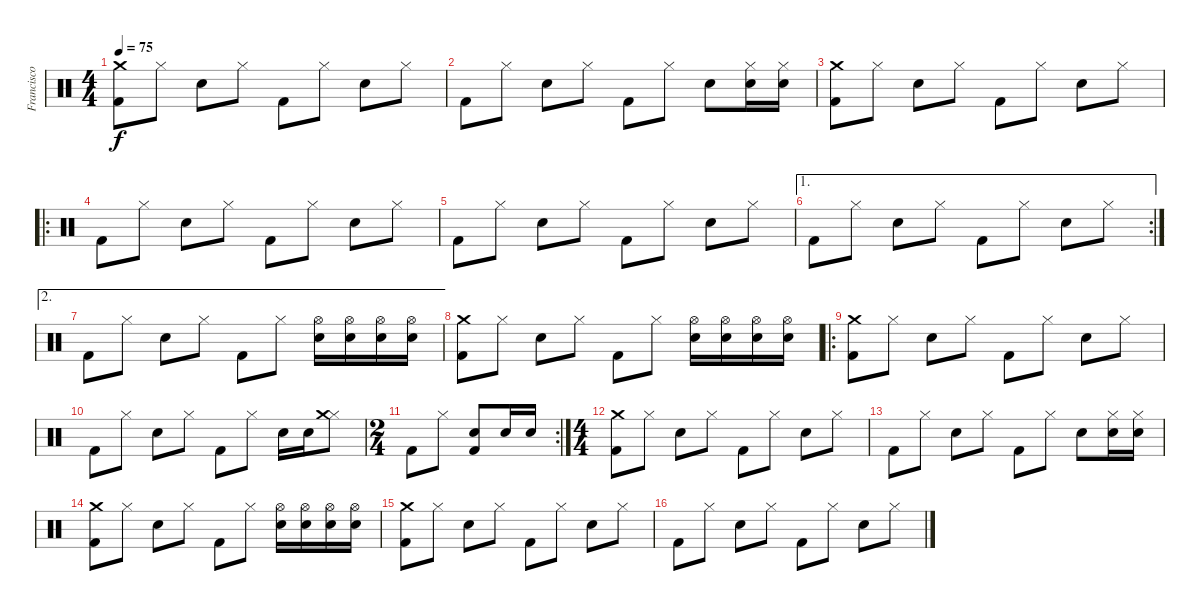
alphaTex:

\track ("Francisco (batería)" "Francisco ") {instrument percussion}
\staff {score}
\articulation defaults
\ts (4 4)
\tempo 75
\clef neutral
\ks c
("Crash medium (hit)" "Kick (hit) 2").8{dy f} "Hi-Hat (closed)".8 "Snare (hit) 2".8 "Hi-Hat (closed)".8 "Kick (hit) 2".8 "Hi-Hat (closed)".8 "Snare (hit) 2".8 "Hi-Hat (closed)".8 |
"Kick (hit) 2".8 "Hi-Hat (closed)".8 "Snare (hit) 2".8 "Hi-Hat (closed)".8 "Kick (hit) 2".8 "Hi-Hat (closed)".8 "Snare (hit) 2".8 ("Hi-Hat (closed)" "Snare (hit) 2").16 ("Hi-Hat (closed)" "Snare (hit) 2").16 |
("Crash medium (hit)" "Kick (hit) 2").8 "Hi-Hat (closed)".8 "Snare (hit) 2".8 "Hi-Hat (closed)".8 "Kick (hit) 2".8 "Hi-Hat (closed)".8 "Snare (hit) 2".8 "Hi-Hat (closed)".8 |
\ro "Kick (hit) 2".8 "Hi-Hat (closed)".8 "Snare (hit) 2".8 "Hi-Hat (closed)".8 "Kick (hit) 2".8 "Hi-Hat (closed)".8 "Snare (hit) 2".8 "Hi-Hat (closed)".8
|
"Kick (hit) 2".8 "Hi-Hat (closed)".8 "Snare (hit) 2".8 "Hi-Hat (closed)".8 "Kick (hit) 2".8 "Hi-Hat (closed)".8 "Snare (hit) 2".8 "Hi-Hat (closed)".8 |
\ae 1
\rc 2 "Kick (hit) 2".8 "Hi-Hat (closed)".8 "Snare (hit) 2".8 "Hi-Hat (closed)".8 "Kick (hit) 2".8 "Hi-Hat (closed)".8 "Snare (hit) 2".8 "Hi-Hat (closed)".8
|
\ae 2 "Kick (hit) 2".8 "Hi-Hat (closed)".8 "Snare (hit) 2".8 "Hi-Hat (closed)".8 "Kick (hit) 2".8 "Hi-Hat (closed)".8
("Hi-Hat (open)" "Snare (hit) 2").16 ("Hi-Hat (open)" "Snare (hit) 2").16 ("Hi-Hat (open)" "Snare (hit) 2").16 ("Hi-Hat (open)" "Snare (hit) 2").16 |
("Crash medium (hit)" "Kick (hit) 2").8 "Hi-Hat (closed)".8 "Snare (hit) 2".8 "Hi-Hat (closed)".8 "Kick (hit) 2".8 "Hi-Hat (closed)".8 ("Hi-Hat (open)" "Snare (hit) 2").16 ("Hi-Hat (open)" "Snare (hit) 2").16 ("Hi-Hat (open)" "Snare (hit) 2").16 ("Hi-Hat (open)" "Snare (hit) 2").16 |
\ro
("Crash medium (hit)" "Kick (hit) 2").8 "Hi-Hat (closed)".8 "Snare (hit) 2".8 "Hi-Hat (closed)".8 "Kick (hit) 2".8 "Hi-Hat (closed)".8 "Snare (hit) 2".8 "Hi-Hat (closed)".8 |
"Kick (hit) 2".8 "Hi-Hat (closed)".8 "Snare (hit) 2".8 "Hi-Hat (closed)".8 "Kick (hit) 2".8 "Hi-Hat (closed)".8 "Snare (hit) 2".16 "Snare (hit) 2".16 ("Hi-Hat (closed)" "Crash medium (hit)").8 |
\rc 2
\ts (2 4)
"Kick (hit) 2".8 "Hi-Hat (closed)".8 ("Kick (hit) 2" "Snare (hit) 2").8 "Snare (hit) 2".16 "Snare (hit) 2".16 |
\ts (4 4)
("Crash medium (hit)" "Kick (hit) 2").8 "Hi-Hat (closed)".8 "Snare (hit) 2".8 "Hi-Hat (closed)".8 "Kick (hit) 2".8 "Hi-Hat (closed)".8 "Snare (hit) 2".8 "Hi-Hat (closed)".8 |
"Kick (hit) 2".8 "Hi-Hat (closed)".8 "Snare (hit) 2".8 "Hi-Hat (closed)".8 "Kick (hit) 2".8 "Hi-Hat (closed)".8 "Snare (hit) 2".8 ("Hi-Hat (closed)" "Snare (hit) 2").16 ("Hi-Hat (closed)" "Snare (hit) 2").16 |
("Crash medium (hit)" "Kick (hit) 2").8 "Hi-Hat (closed)".8 "Snare (hit) 2".8 "Hi-Hat (closed)".8 "Kick (hit) 2".8 "Hi-Hat (closed)".8 ("Hi-Hat (open)" "Snare (hit) 2").16 ("Hi-Hat (open)" "Snare (hit) 2").16 ("Hi-Hat (open)" "Snare (hit) 2").16 ("Hi-Hat (open)" "Snare (hit) 2").16 |
("Crash medium (hit)" "Kick (hit) 2").8 "Hi-Hat (closed)".8 "Snare (hit) 2".8 "Hi-Hat (closed)".8 "Kick (hit) 2".8 "Hi-Hat (closed)".8 "Snare (hit) 2".8 "Hi-Hat (closed)".8 |
"Kick (hit) 2".8 "Hi-Hat (closed)".8 "Snare (hit) 2".8 "Hi-Hat (closed)".8 "Kick (hit) 2".8 "Hi-Hat (closed)".8 "Snare (hit) 2".8 "Hi-Hat (closed)".8
